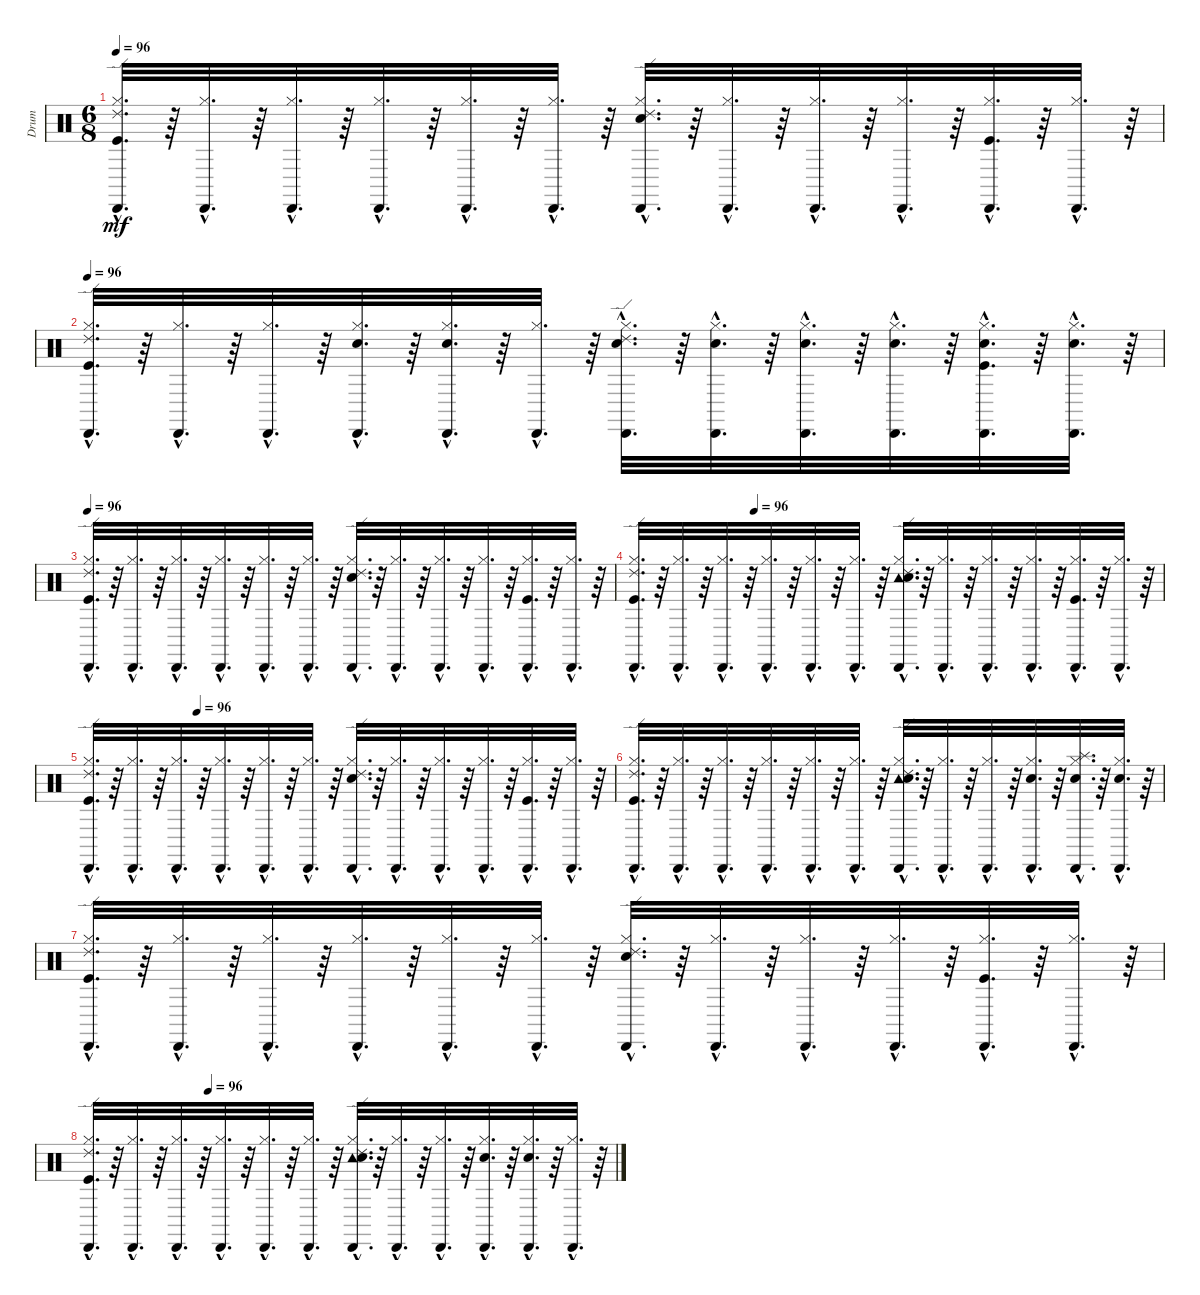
\track ("Drum" "Drum") {instrument percussion}
\staff {score}
\articulation defaults
\ts (6 8)
\tempo 96
\clef neutral
\ks c
("Kick (hit)"{hac} "Hi-Hat (closed)"{hac} "Cabasa (hit)"{hac} "Ride (edge) 2"{hac}).32{d dy mf} r.64 ("Hi-Hat (closed)"{hac} "Cabasa (hit)"{hac}).32{d} r.64 ("Hi-Hat (closed)"{hac} "Cabasa (hit)"{hac}).32{d} r.64 ("Hi-Hat (closed)"{hac} "Cabasa (hit)"{hac}).32{d} r.64 ("Hi-Hat (closed)"{hac} "Cabasa (hit)"{hac}).32{d} r.64 ("Hi-Hat (closed)"{hac} "Cabasa (hit)"{hac}).32{d} r.64 ("Snare (hit) 2"{hac} "Hi-Hat (closed)"{hac} "Cabasa (hit)"{hac} "Ride (edge) 2"{hac}).32{d} r.64 ("Hi-Hat (closed)"{hac} "Cabasa (hit)"{hac}).32{d} r.64 ("Hi-Hat (closed)"{hac} "Cabasa (hit)"{hac}).32{d} r.64 ("Hi-Hat (closed)"{hac} "Cabasa (hit)"{hac}).32{d} r.64 ("Kick (hit)"{hac} "Hi-Hat (closed)"{hac} "Cabasa (hit)"{hac}).32{d} r.64 ("Hi-Hat (closed)"{hac} "Cabasa (hit)"{hac}).32{d} r.64 |
\tempo 96
("Kick (hit)"{hac} "Hi-Hat (closed)"{hac} "Cabasa (hit)"{hac} "Ride (edge) 2"{hac}).32{d} r.64 ("Hi-Hat (closed)"{hac} "Cabasa (hit)"{hac}).32{d} r.64 ("Hi-Hat (closed)"{hac} "Cabasa (hit)"{hac}).32{d} r.64 ("Snare (hit) 2"{hac} "Hi-Hat (closed)"{hac} "Cabasa (hit)"{hac}).32{d} r.64 ("Snare (hit) 2"{hac} "Hi-Hat (closed)"{hac} "Cabasa (hit)"{hac}).32{d} r.64 ("Hi-Hat (closed)"{hac} "Cabasa (hit)"{hac}).32{d} r.64 ("Snare (hit) 2"{hac} "Hi-Hat (closed)"{hac} "Cabasa (hit)"{hac} "Ride (edge) 2"{hac}).32{d} r.64 ("Snare (hit) 2"{hac} "Hi-Hat (closed)"{hac} "Cabasa (hit)"{hac}).32{d} r.64 ("Snare (hit) 2"{hac} "Hi-Hat (closed)"{hac} "Cabasa (hit)"{hac}).32{d} r.64 ("Hi-Hat (closed)"{hac} "Cabasa (hit)"{hac} "Snare (hit) 2"{hac}).32{d} r.64 ("Kick (hit)"{hac} "Hi-Hat (closed)"{hac} "Cabasa (hit)"{hac} "Snare (hit) 2"{hac}).32{d} r.64 ("Snare (hit) 2"{hac} "Hi-Hat (closed)"{hac} "Cabasa (hit)"{hac}).32{d} r.64 |
\tempo 96
("Ride (edge) 2"{hac} "Cabasa (hit)"{hac} "Kick (hit)"{hac} "Hi-Hat (closed)"{hac}).32{d} r.64 ("Cabasa (hit)"{hac} "Hi-Hat (closed)"{hac}).32{d} r.64 ("Cabasa (hit)"{hac} "Hi-Hat (closed)"{hac}).32{d} r.64 ("Cabasa (hit)"{hac} "Hi-Hat (closed)"{hac}).32{d} r.64 ("Cabasa (hit)"{hac} "Hi-Hat (closed)"{hac}).32{d} r.64 ("Cabasa (hit)"{hac} "Hi-Hat (closed)"{hac}).32{d} r.64 ("Ride (edge) 2"{hac} "Cabasa (hit)"{hac} "Snare (hit) 2"{hac} "Hi-Hat (closed)"{hac}).32{d} r.64 ("Cabasa (hit)"{hac} "Hi-Hat (closed)"{hac}).32{d} r.64 ("Cabasa (hit)"{hac} "Hi-Hat (closed)"{hac}).32{d} r.64 ("Cabasa (hit)"{hac} "Hi-Hat (closed)"{hac}).32{d} r.64 ("Kick (hit)"{hac} "Cabasa (hit)"{hac} "Hi-Hat (closed)"{hac}).32{d} r.64 ("Cabasa (hit)"{hac} "Hi-Hat (closed)"{hac}).32{d} r.64 |
\tempo (96 0.22916666666666666)
("Ride (edge) 2"{hac} "Cabasa (hit)"{hac} "Hi-Hat (closed)"{hac} "Kick (hit)"{hac}).32{d} r.64 ("Cabasa (hit)"{hac} "Hi-Hat (closed)"{hac}).32{d} r.64 ("Cabasa (hit)"{hac} "Hi-Hat (closed)"{hac}).32{d} r.64 ("Cabasa (hit)"{hac} "Hi-Hat (closed)"{hac}).32{d} r.64 ("Cabasa (hit)"{hac} "Hi-Hat (closed)"{hac}).32{d} r.64 ("Cabasa (hit)"{hac} "Hi-Hat (closed)"{hac}).32{d} r.64 ("Tambourine (hit)"{hac} "Ride (edge) 2"{hac} "Cabasa (hit)"{hac} "Hi-Hat (closed)"{hac} "Snare (hit) 2"{hac}).32{d} r.64 ("Cabasa (hit)"{hac} "Hi-Hat (closed)"{hac}).32{d} r.64 ("Cabasa (hit)"{hac} "Hi-Hat (closed)"{hac}).32{d} r.64 ("Cabasa (hit)"{hac} "Hi-Hat (closed)"{hac}).32{d} r.64 ("Kick (hit)"{hac} "Cabasa (hit)"{hac} "Hi-Hat (closed)"{hac}).32{d} r.64 ("Cabasa (hit)"{hac} "Hi-Hat (closed)"{hac}).32{d} r.64 |
\tempo (96 0.20833333333333334)
("Kick (hit)"{hac} "Hi-Hat (closed)"{hac} "Cabasa (hit)"{hac} "Ride (edge) 2"{hac}).32{d} r.64 ("Hi-Hat (closed)"{hac} "Cabasa (hit)"{hac}).32{d} r.64 ("Hi-Hat (closed)"{hac} "Cabasa (hit)"{hac}).32{d} r.64 ("Hi-Hat (closed)"{hac} "Cabasa (hit)"{hac}).32{d} r.64 ("Hi-Hat (closed)"{hac} "Cabasa (hit)"{hac}).32{d} r.64 ("Hi-Hat (closed)"{hac} "Cabasa (hit)"{hac}).32{d} r.64 ("Snare (hit) 2"{hac} "Hi-Hat (closed)"{hac} "Cabasa (hit)"{hac} "Ride (edge) 2"{hac}).32{d} r.64 ("Hi-Hat (closed)"{hac} "Cabasa (hit)"{hac}).32{d} r.64 ("Hi-Hat (closed)"{hac} "Cabasa (hit)"{hac}).32{d} r.64 ("Hi-Hat (closed)"{hac} "Cabasa (hit)"{hac}).32{d} r.64 ("Kick (hit)"{hac} "Hi-Hat (closed)"{hac} "Cabasa (hit)"{hac}).32{d} r.64 ("Hi-Hat (closed)"{hac} "Cabasa (hit)"{hac}).32{d} r.64 |
("Kick (hit)"{hac} "Hi-Hat (closed)"{hac} "Cabasa (hit)"{hac} "Ride (edge) 2"{hac}).32{d} r.64 ("Hi-Hat (closed)"{hac} "Cabasa (hit)"{hac}).32{d} r.64 ("Hi-Hat (closed)"{hac} "Cabasa (hit)"{hac}).32{d} r.64 ("Hi-Hat (closed)"{hac} "Cabasa (hit)"{hac}).32{d} r.64 ("Hi-Hat (closed)"{hac} "Cabasa (hit)"{hac}).32{d} r.64 ("Hi-Hat (closed)"{hac} "Cabasa (hit)"{hac}).32{d} r.64 ("Tambourine (hit)"{hac} "Snare (hit) 2"{hac} "Hi-Hat (closed)"{hac} "Cabasa (hit)"{hac} "Ride (edge) 2"{hac}).32{d} r.64 ("Hi-Hat (closed)"{hac} "Cabasa (hit)"{hac}).32{d} r.64 ("Hi-Hat (closed)"{hac} "Cabasa (hit)"{hac}).32{d} r.64 ("Hi-Hat (closed)"{hac} "Cabasa (hit)"{hac} "Snare (hit) 2"{hac}).32{d} r.64 ("Splash (hit)"{hac} "Hi-Hat (closed)"{hac} "Cabasa (hit)"{hac} "Snare (hit) 2"{hac}).32{d} r.64 ("Snare (hit) 2"{hac} "Hi-Hat (closed)"{hac} "Cabasa (hit)"{hac}).32{d} r.64 |
("Kick (hit)"{hac} "Hi-Hat (closed)"{hac} "Cabasa (hit)"{hac} "Ride (edge) 2"{hac}).32{d} r.64 ("Hi-Hat (closed)"{hac} "Cabasa (hit)"{hac}).32{d} r.64 ("Hi-Hat (closed)"{hac} "Cabasa (hit)"{hac}).32{d} r.64 ("Hi-Hat (closed)"{hac} "Cabasa (hit)"{hac}).32{d} r.64 ("Hi-Hat (closed)"{hac} "Cabasa (hit)"{hac}).32{d} r.64 ("Hi-Hat (closed)"{hac} "Cabasa (hit)"{hac}).32{d} r.64 ("Snare (hit) 2"{hac} "Hi-Hat (closed)"{hac} "Cabasa (hit)"{hac} "Ride (edge) 2"{hac}).32{d} r.64 ("Hi-Hat (closed)"{hac} "Cabasa (hit)"{hac}).32{d} r.64 ("Hi-Hat (closed)"{hac} "Cabasa (hit)"{hac}).32{d} r.64 ("Hi-Hat (closed)"{hac} "Cabasa (hit)"{hac}).32{d} r.64 ("Hi-Hat (closed)"{hac} "Cabasa (hit)"{hac} "Kick (hit)"{hac}).32{d} r.64 ("Hi-Hat (closed)"{hac} "Cabasa (hit)"{hac}).32{d} r.64 |
\tempo (96 0.22916666666666666)
("Hi-Hat (closed)"{hac} "Kick (hit)"{hac} "Cabasa (hit)"{hac} "Ride (edge) 2"{hac}).32{d} r.64 ("Hi-Hat (closed)"{hac} "Cabasa (hit)"{hac}).32{d} r.64 ("Hi-Hat (closed)"{hac} "Cabasa (hit)"{hac}).32{d} r.64 ("Hi-Hat (closed)"{hac} "Cabasa (hit)"{hac}).32{d} r.64 ("Hi-Hat (closed)"{hac} "Cabasa (hit)"{hac}).32{d} r.64 ("Hi-Hat (closed)"{hac} "Cabasa (hit)"{hac}).32{d} r.64 ("Tambourine (hit)"{hac} "Hi-Hat (closed)"{hac} "Snare (hit) 2"{hac} "Cabasa (hit)"{hac} "Ride (edge) 2"{hac}).32{d} r.64 ("Hi-Hat (closed)"{hac} "Cabasa (hit)"{hac}).32{d} r.64 ("Hi-Hat (closed)"{hac} "Cabasa (hit)"{hac}).32{d} r.64 ("Hi-Hat (closed)"{hac} "Snare (hit) 2"{hac} "Cabasa (hit)"{hac}).32{d} r.64 ("Hi-Hat (closed)"{hac} "Snare (hit) 2"{hac} "Cabasa (hit)"{hac}).32{d} r.64 ("Hi-Hat (closed)"{hac} "Cabasa (hit)"{hac}).32{d} r.64
